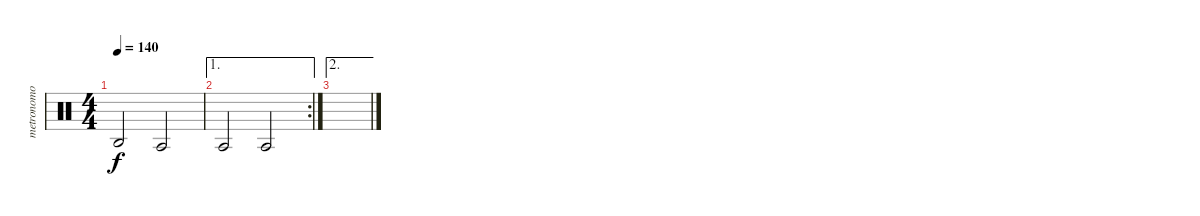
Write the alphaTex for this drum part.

\track ("metronomo" "metronomo") {instrument percussion}
\staff {score}
\articulation defaults
\ts (4 4)
\tempo 140
\clef neutral
\ks c "Agogo high (hit)".2{dy f} "Agogo tow (hit)".2
|
\ae 1
\rc 2 "Agogo tow (hit)".2 "Agogo tow (hit)".2
|
\ae 2
